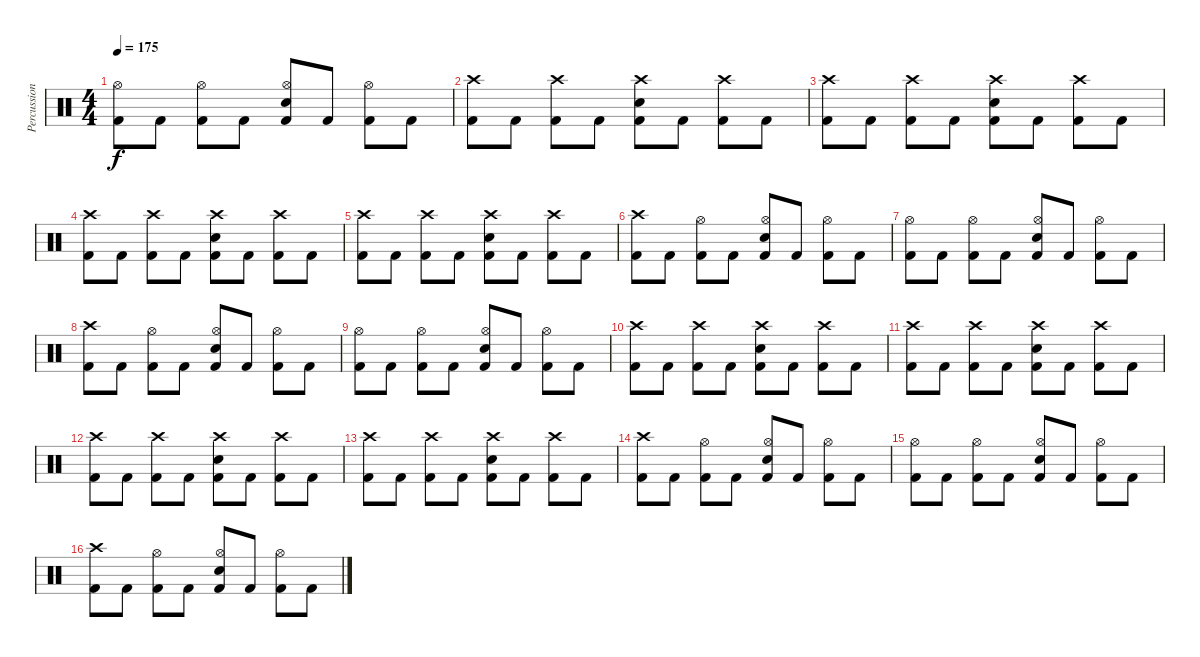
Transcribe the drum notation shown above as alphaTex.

\track ("Percussion" "Percussion") {instrument percussion}
\staff {score}
\articulation defaults
\ts (4 4)
\tempo 175
\clef neutral
\ks c
("Kick (hit) 2" "Hi-Hat (open)").8{dy f} "Kick (hit) 2".8 ("Kick (hit) 2" "Hi-Hat (open)").8 "Kick (hit) 2".8 ("Kick (hit) 2" "Hi-Hat (open)" "Electric Snare (hit)").8 "Kick (hit) 2".8 ("Kick (hit) 2" "Hi-Hat (open)").8 "Kick (hit) 2".8 |
("Kick (hit) 2" "Crash high (hit)").8 "Kick (hit) 2".8 ("Kick (hit) 2" "Crash high (hit)").8 "Kick (hit) 2".8 ("Kick (hit) 2" "Crash high (hit)" "Electric Snare (hit)").8 "Kick (hit) 2".8 ("Kick (hit) 2" "Crash high (hit)").8 "Kick (hit) 2".8 |
("Kick (hit) 2" "Crash high (hit)").8 "Kick (hit) 2".8 ("Kick (hit) 2" "Crash high (hit)").8 "Kick (hit) 2".8 ("Kick (hit) 2" "Crash high (hit)" "Electric Snare (hit)").8 "Kick (hit) 2".8 ("Kick (hit) 2" "Crash high (hit)").8 "Kick (hit) 2".8 |
("Kick (hit) 2" "Crash high (hit)").8 "Kick (hit) 2".8 ("Kick (hit) 2" "Crash high (hit)").8 "Kick (hit) 2".8 ("Kick (hit) 2" "Crash high (hit)" "Electric Snare (hit)").8 "Kick (hit) 2".8 ("Kick (hit) 2" "Crash high (hit)").8 "Kick (hit) 2".8 |
("Kick (hit) 2" "Crash high (hit)").8 "Kick (hit) 2".8 ("Kick (hit) 2" "Crash high (hit)").8 "Kick (hit) 2".8 ("Kick (hit) 2" "Crash high (hit)" "Electric Snare (hit)").8 "Kick (hit) 2".8 ("Kick (hit) 2" "Crash high (hit)").8 "Kick (hit) 2".8 |
("Kick (hit) 2" "Crash high (hit)").8 "Kick (hit) 2".8 ("Kick (hit) 2" "Hi-Hat (open)").8 "Kick (hit) 2".8 ("Kick (hit) 2" "Hi-Hat (open)" "Electric Snare (hit)").8 "Kick (hit) 2".8 ("Kick (hit) 2" "Hi-Hat (open)").8 "Kick (hit) 2".8 |
("Kick (hit) 2" "Hi-Hat (open)").8 "Kick (hit) 2".8 ("Kick (hit) 2" "Hi-Hat (open)").8 "Kick (hit) 2".8 ("Kick (hit) 2" "Hi-Hat (open)" "Electric Snare (hit)").8 "Kick (hit) 2".8 ("Kick (hit) 2" "Hi-Hat (open)").8 "Kick (hit) 2".8 |
("Kick (hit) 2" "Crash high (hit)").8 "Kick (hit) 2".8 ("Kick (hit) 2" "Hi-Hat (open)").8 "Kick (hit) 2".8 ("Kick (hit) 2" "Hi-Hat (open)" "Electric Snare (hit)").8 "Kick (hit) 2".8 ("Kick (hit) 2" "Hi-Hat (open)").8 "Kick (hit) 2".8 |
("Kick (hit) 2" "Hi-Hat (open)").8 "Kick (hit) 2".8 ("Kick (hit) 2" "Hi-Hat (open)").8 "Kick (hit) 2".8 ("Kick (hit) 2" "Hi-Hat (open)" "Electric Snare (hit)").8 "Kick (hit) 2".8 ("Kick (hit) 2" "Hi-Hat (open)").8 "Kick (hit) 2".8 |
("Kick (hit) 2" "Crash high (hit)").8 "Kick (hit) 2".8 ("Kick (hit) 2" "Crash high (hit)").8 "Kick (hit) 2".8 ("Kick (hit) 2" "Crash high (hit)" "Electric Snare (hit)").8 "Kick (hit) 2".8 ("Kick (hit) 2" "Crash high (hit)").8 "Kick (hit) 2".8 |
("Kick (hit) 2" "Crash high (hit)").8 "Kick (hit) 2".8 ("Kick (hit) 2" "Crash high (hit)").8 "Kick (hit) 2".8 ("Kick (hit) 2" "Crash high (hit)" "Electric Snare (hit)").8 "Kick (hit) 2".8 ("Kick (hit) 2" "Crash high (hit)").8 "Kick (hit) 2".8 |
("Kick (hit) 2" "Crash high (hit)").8 "Kick (hit) 2".8 ("Kick (hit) 2" "Crash high (hit)").8 "Kick (hit) 2".8 ("Kick (hit) 2" "Crash high (hit)" "Electric Snare (hit)").8 "Kick (hit) 2".8 ("Kick (hit) 2" "Crash high (hit)").8 "Kick (hit) 2".8 |
("Kick (hit) 2" "Crash high (hit)").8 "Kick (hit) 2".8 ("Kick (hit) 2" "Crash high (hit)").8 "Kick (hit) 2".8 ("Kick (hit) 2" "Crash high (hit)" "Electric Snare (hit)").8 "Kick (hit) 2".8 ("Kick (hit) 2" "Crash high (hit)").8 "Kick (hit) 2".8 |
("Kick (hit) 2" "Crash high (hit)").8 "Kick (hit) 2".8 ("Kick (hit) 2" "Hi-Hat (open)").8 "Kick (hit) 2".8 ("Kick (hit) 2" "Hi-Hat (open)" "Electric Snare (hit)").8 "Kick (hit) 2".8 ("Kick (hit) 2" "Hi-Hat (open)").8 "Kick (hit) 2".8 |
("Kick (hit) 2" "Hi-Hat (open)").8 "Kick (hit) 2".8 ("Kick (hit) 2" "Hi-Hat (open)").8 "Kick (hit) 2".8 ("Kick (hit) 2" "Hi-Hat (open)" "Electric Snare (hit)").8 "Kick (hit) 2".8 ("Kick (hit) 2" "Hi-Hat (open)").8 "Kick (hit) 2".8 |
("Kick (hit) 2" "Crash high (hit)").8 "Kick (hit) 2".8 ("Kick (hit) 2" "Hi-Hat (open)").8 "Kick (hit) 2".8 ("Kick (hit) 2" "Hi-Hat (open)" "Electric Snare (hit)").8 "Kick (hit) 2".8 ("Kick (hit) 2" "Hi-Hat (open)").8 "Kick (hit) 2".8
